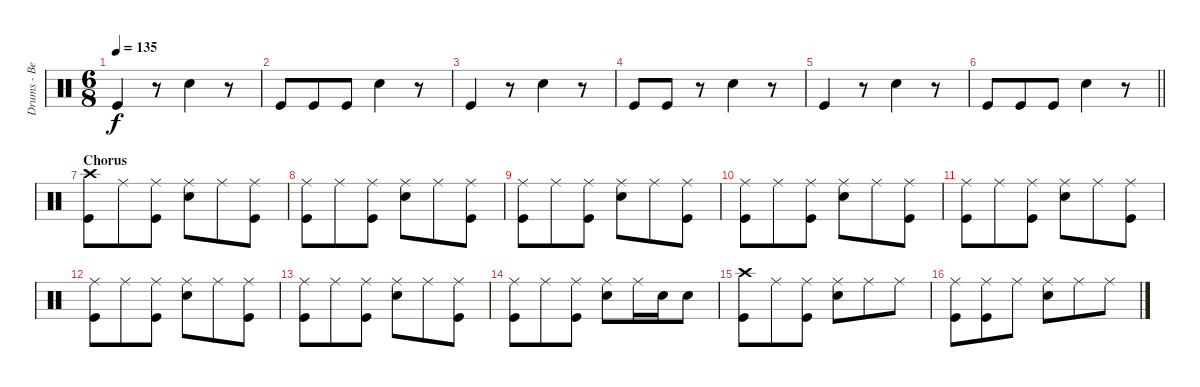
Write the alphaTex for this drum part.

\track ("Drums - Ben Johnston" "Drums - Be") {instrument percussion}
\staff {score}
\articulation defaults
\ts (6 8)
\tempo 135
\clef neutral
\ks c "Kick (hit)".4{dy f}
r.8 "Snare (hit) 2".4 r.8 |
"Kick (hit)".8 "Kick (hit)".8 "Kick (hit)".8 "Snare (hit) 2".4 r.8 |
"Kick (hit)".4 r.8 "Snare (hit) 2".4 r.8 |
"Kick (hit)".8 "Kick (hit)".8 r.8 "Snare (hit) 2".4 r.8 |
"Kick (hit)".4 r.8 "Snare (hit) 2".4 r.8 |
\barLineRight lightlight "Kick (hit)".8 "Kick (hit)".8 "Kick (hit)".8 "Snare (hit) 2".4
r.8 |
\section ("" "Chorus")
("Crash high (hit)" "Kick (hit)").8 "Ride (middle)".8 ("Ride (middle)" "Kick (hit)").8 ("Ride (middle)" "Snare (hit) 2").8 "Ride (middle)".8 ("Ride (middle)" "Kick (hit)").8 |
("Ride (middle)" "Kick (hit)").8 "Ride (middle)".8 ("Ride (middle)" "Kick (hit)").8 ("Ride (middle)" "Snare (hit) 2").8 "Ride (middle)".8 ("Ride (middle)" "Kick (hit)").8 |
("Ride (middle)" "Kick (hit)").8 "Ride (middle)".8 ("Ride (middle)" "Kick (hit)").8 ("Ride (middle)" "Snare (hit) 2").8 "Ride (middle)".8 ("Ride (middle)" "Kick (hit)").8 |
("Ride (middle)" "Kick (hit)").8 "Ride (middle)".8 ("Ride (middle)" "Kick (hit)").8 ("Ride (middle)" "Snare (hit) 2").8 "Ride (middle)".8 ("Ride (middle)" "Kick (hit)").8 |
("Ride (middle)" "Kick (hit)").8 "Ride (middle)".8 ("Ride (middle)" "Kick (hit)").8 ("Ride (middle)" "Snare (hit) 2").8 "Ride (middle)".8 ("Ride (middle)" "Kick (hit)").8 |
("Ride (middle)" "Kick (hit)").8 "Ride (middle)".8 ("Ride (middle)" "Kick (hit)").8 ("Ride (middle)" "Snare (hit) 2").8 "Ride (middle)".8 ("Ride (middle)" "Kick (hit)").8 |
("Ride (middle)" "Kick (hit)").8 "Ride (middle)".8 ("Ride (middle)" "Kick (hit)").8 ("Ride (middle)" "Snare (hit) 2").8 "Ride (middle)".8 ("Ride (middle)" "Kick (hit)").8 |
("Ride (middle)" "Kick (hit)").8 "Ride (middle)".8 ("Ride (middle)" "Kick (hit)").8 ("Ride (middle)" "Snare (hit) 2").8 "Ride (middle)".16 "Snare (hit) 2".16 "Snare (hit) 2".8 |
("Crash high (hit)" "Kick (hit)").8 "Ride (middle)".8 ("Ride (middle)" "Kick (hit)").8 ("Ride (middle)" "Snare (hit) 2").8 "Ride (middle)".8 "Ride (middle)".8 |
("Ride (middle)" "Kick (hit)").8 ("Ride (middle)" "Kick (hit)").8 "Ride (middle)".8 ("Ride (middle)" "Snare (hit) 2").8 "Ride (middle)".8 "Ride (middle)".8
